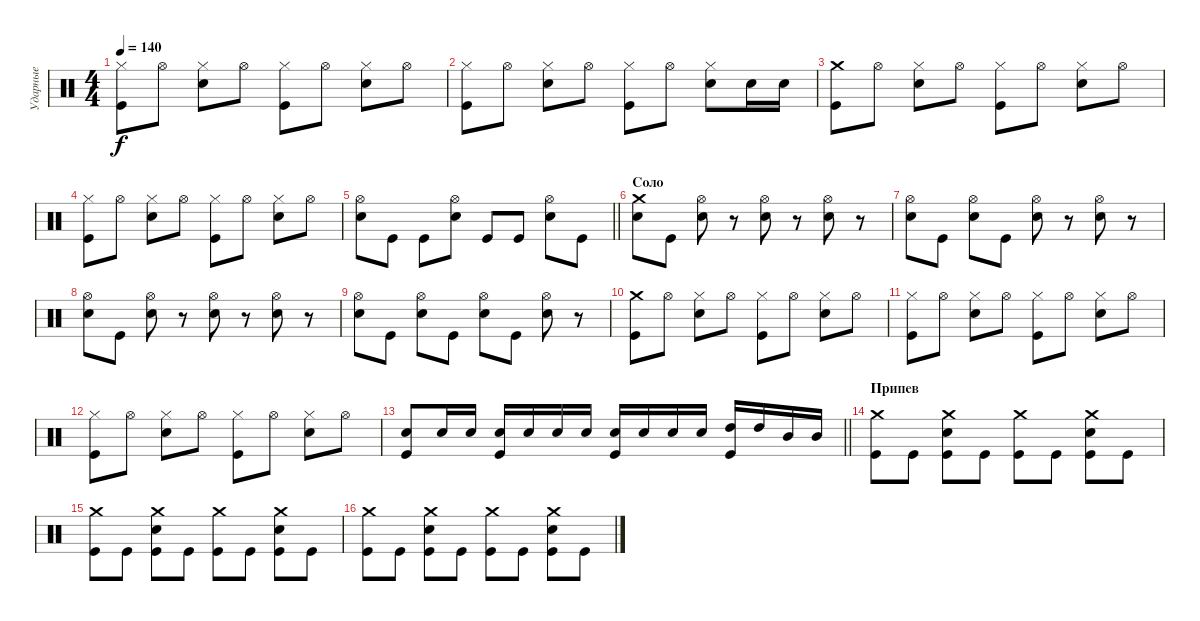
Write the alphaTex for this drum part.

\track ("Ударные" "Ударные") {instrument percussion}
\staff {score}
\articulation defaults
\ts (4 4)
\tempo 140
\clef neutral
\ks c
("Hi-Hat (closed)" "Kick (hit)").8{dy f} "Hi-Hat (open)".8 ("Hi-Hat (closed)" "Electric Snare (hit)").8 "Hi-Hat (open)".8 ("Hi-Hat (closed)" "Kick (hit)").8 "Hi-Hat (open)".8 ("Hi-Hat (closed)" "Electric Snare (hit)").8 "Hi-Hat (open)".8 |
("Hi-Hat (closed)" "Kick (hit)").8 "Hi-Hat (open)".8 ("Hi-Hat (closed)" "Electric Snare (hit)").8 "Hi-Hat (open)".8 ("Hi-Hat (closed)" "Kick (hit)").8 "Hi-Hat (open)".8 ("Hi-Hat (closed)" "Electric Snare (hit)").8 "Electric Snare (hit)".16 "Electric Snare (hit)".16 |
("Crash medium (hit)" "Kick (hit)").8 "Hi-Hat (open)".8 ("Hi-Hat (closed)" "Electric Snare (hit)").8 "Hi-Hat (open)".8 ("Hi-Hat (closed)" "Kick (hit)").8 "Hi-Hat (open)".8 ("Hi-Hat (closed)" "Electric Snare (hit)").8 "Hi-Hat (open)".8 |
("Hi-Hat (closed)" "Kick (hit)").8 "Hi-Hat (open)".8 ("Hi-Hat (closed)" "Electric Snare (hit)").8 "Hi-Hat (open)".8 ("Hi-Hat (closed)" "Kick (hit)").8 "Hi-Hat (open)".8 ("Hi-Hat (closed)" "Electric Snare (hit)").8 "Hi-Hat (open)".8 |
\barLineRight lightlight
("Hi-Hat (open)" "Electric Snare (hit)").8 "Kick (hit)".8 "Kick (hit)".8 ("Hi-Hat (open)" "Electric Snare (hit)").8 "Kick (hit)".8 "Kick (hit)".8 ("Hi-Hat (open)" "Electric Snare (hit)").8 "Kick (hit)".8 |
\section ("" "Соло")
("Crash medium (hit)" "Electric Snare (hit)").8 "Kick (hit)".8 ("Hi-Hat (open)" "Electric Snare (hit)").8 r.8 ("Hi-Hat (open)" "Electric Snare (hit)").8 r.8 ("Hi-Hat (open)" "Electric Snare (hit)").8 r.8 |
("Hi-Hat (open)" "Electric Snare (hit)").8 "Kick (hit)".8 ("Hi-Hat (open)" "Electric Snare (hit)").8 "Kick (hit)".8 ("Hi-Hat (open)" "Electric Snare (hit)").8 r.8 ("Hi-Hat (open)" "Electric Snare (hit)").8 r.8 |
("Hi-Hat (open)" "Electric Snare (hit)").8 "Kick (hit)".8 ("Hi-Hat (open)" "Electric Snare (hit)").8 r.8 ("Hi-Hat (open)" "Electric Snare (hit)").8 r.8 ("Hi-Hat (open)" "Electric Snare (hit)").8 r.8 |
("Hi-Hat (open)" "Electric Snare (hit)").8 "Kick (hit)".8 ("Hi-Hat (open)" "Electric Snare (hit)").8 "Kick (hit)".8 ("Hi-Hat (open)" "Electric Snare (hit)").8 "Kick (hit)".8 ("Hi-Hat (open)" "Electric Snare (hit)").8 r.8 |
("Crash medium (hit)" "Kick (hit)").8 "Hi-Hat (open)".8 ("Hi-Hat (closed)" "Electric Snare (hit)").8 "Hi-Hat (open)".8 ("Hi-Hat (closed)" "Kick (hit)").8 "Hi-Hat (open)".8 ("Hi-Hat (closed)" "Electric Snare (hit)").8 "Hi-Hat (open)".8 |
("Hi-Hat (closed)" "Kick (hit)").8 "Hi-Hat (open)".8 ("Hi-Hat (closed)" "Electric Snare (hit)").8 "Hi-Hat (open)".8 ("Hi-Hat (closed)" "Kick (hit)").8 "Hi-Hat (open)".8 ("Hi-Hat (closed)" "Electric Snare (hit)").8 "Hi-Hat (open)".8 |
("Hi-Hat (closed)" "Kick (hit)").8 "Hi-Hat (open)".8 ("Hi-Hat (closed)" "Electric Snare (hit)").8 "Hi-Hat (open)".8 ("Hi-Hat (closed)" "Kick (hit)").8 "Hi-Hat (open)".8 ("Hi-Hat (closed)" "Electric Snare (hit)").8 "Hi-Hat (open)".8 |
\barLineRight lightlight
("Electric Snare (hit)" "Kick (hit)").8 "Electric Snare (hit)".16 "Electric Snare (hit)".16 ("Electric Snare (hit)" "Kick (hit)").16 "Electric Snare (hit)".16 "Electric Snare (hit)".16 "Electric Snare (hit)".16 ("Electric Snare (hit)" "Kick (hit)").16 "Electric Snare (hit)".16 "Electric Snare (hit)".16 "Electric Snare (hit)".16 ("High Tom (hit)" "Kick (hit)").16 "High Tom (hit)".16 "Mid Tom (hit)".16 "Mid Tom (hit)".16 |
\section ("" "Припев")
("Crash medium (hit)" "Kick (hit)").8 "Kick (hit)".8 ("Crash medium (hit)" "Electric Snare (hit)" "Kick (hit)").8 "Kick (hit)".8 ("Crash medium (hit)" "Kick (hit)").8 "Kick (hit)".8 ("Crash medium (hit)" "Electric Snare (hit)" "Kick (hit)").8 "Kick (hit)".8 |
("Crash medium (hit)" "Kick (hit)").8 "Kick (hit)".8 ("Crash medium (hit)" "Electric Snare (hit)" "Kick (hit)").8 "Kick (hit)".8 ("Crash medium (hit)" "Kick (hit)").8 "Kick (hit)".8 ("Crash medium (hit)" "Electric Snare (hit)" "Kick (hit)").8 "Kick (hit)".8 |
("Crash medium (hit)" "Kick (hit)").8 "Kick (hit)".8 ("Crash medium (hit)" "Electric Snare (hit)" "Kick (hit)").8 "Kick (hit)".8 ("Crash medium (hit)" "Kick (hit)").8 "Kick (hit)".8 ("Crash medium (hit)" "Electric Snare (hit)" "Kick (hit)").8 "Kick (hit)".8
